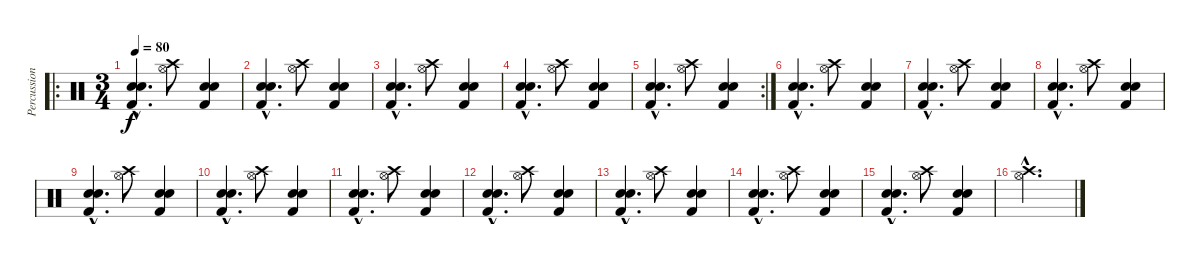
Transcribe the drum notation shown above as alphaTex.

\track ("Percussions" "Percussion") {instrument percussion}
\staff {score}
\articulation defaults
\ro
\ts (3 4)
\tempo 80
\clef neutral
\ks c
("Snare (hit) 2"{hac} "Snare (hit) 2"{hac} "Kick (hit) 2"{hac}).4{d dy f} ("Crash high (hit)" "Hi-Hat (open)").8 ("Snare (hit) 2" "Snare (hit) 2" "Kick (hit) 2").4 |
("Snare (hit) 2"{hac} "Snare (hit) 2"{hac} "Kick (hit) 2"{hac}).4{d} ("Crash high (hit)" "Hi-Hat (open)").8 ("Snare (hit) 2" "Snare (hit) 2" "Kick (hit) 2").4 |
("Snare (hit) 2"{hac} "Snare (hit) 2"{hac} "Kick (hit) 2"{hac}).4{d} ("Crash high (hit)" "Hi-Hat (open)").8 ("Snare (hit) 2" "Snare (hit) 2" "Kick (hit) 2").4 |
("Snare (hit) 2"{hac} "Snare (hit) 2"{hac} "Kick (hit) 2"{hac}).4{d} ("Crash high (hit)" "Hi-Hat (open)").8 ("Snare (hit) 2" "Snare (hit) 2" "Kick (hit) 2").4 |
\rc 2
("Snare (hit) 2"{hac} "Snare (hit) 2"{hac} "Kick (hit) 2"{hac}).4{d} ("Crash high (hit)" "Hi-Hat (open)").8 ("Snare (hit) 2" "Snare (hit) 2" "Kick (hit) 2").4 |
("Snare (hit) 2"{hac} "Snare (hit) 2"{hac} "Kick (hit) 2"{hac}).4{d} ("Crash high (hit)" "Hi-Hat (open)").8 ("Snare (hit) 2" "Snare (hit) 2" "Kick (hit) 2").4 |
("Snare (hit) 2"{hac} "Snare (hit) 2"{hac} "Kick (hit) 2"{hac}).4{d} ("Crash high (hit)" "Hi-Hat (open)").8 ("Snare (hit) 2" "Snare (hit) 2" "Kick (hit) 2").4 |
("Snare (hit) 2"{hac} "Snare (hit) 2"{hac} "Kick (hit) 2"{hac}).4{d} ("Crash high (hit)" "Hi-Hat (open)").8 ("Snare (hit) 2" "Snare (hit) 2" "Kick (hit) 2").4 |
("Snare (hit) 2"{hac} "Snare (hit) 2"{hac} "Kick (hit) 2"{hac}).4{d} ("Crash high (hit)" "Hi-Hat (open)").8 ("Snare (hit) 2" "Snare (hit) 2" "Kick (hit) 2").4 |
("Snare (hit) 2"{hac} "Snare (hit) 2"{hac} "Kick (hit) 2"{hac}).4{d} ("Crash high (hit)" "Hi-Hat (open)").8 ("Snare (hit) 2" "Snare (hit) 2" "Kick (hit) 2").4 |
("Snare (hit) 2"{hac} "Snare (hit) 2"{hac} "Kick (hit) 2"{hac}).4{d} ("Crash high (hit)" "Hi-Hat (open)").8 ("Snare (hit) 2" "Snare (hit) 2" "Kick (hit) 2").4 |
("Snare (hit) 2"{hac} "Snare (hit) 2"{hac} "Kick (hit) 2"{hac}).4{d} ("Crash high (hit)" "Hi-Hat (open)").8 ("Snare (hit) 2" "Snare (hit) 2" "Kick (hit) 2").4 |
("Snare (hit) 2"{hac} "Snare (hit) 2"{hac} "Kick (hit) 2"{hac}).4{d} ("Crash high (hit)" "Hi-Hat (open)").8 ("Snare (hit) 2" "Snare (hit) 2" "Kick (hit) 2").4 |
("Snare (hit) 2"{hac} "Snare (hit) 2"{hac} "Kick (hit) 2"{hac}).4{d} ("Crash high (hit)" "Hi-Hat (open)").8 ("Snare (hit) 2" "Snare (hit) 2" "Kick (hit) 2").4 |
("Snare (hit) 2"{hac} "Snare (hit) 2"{hac} "Kick (hit) 2"{hac}).4{d} ("Crash high (hit)" "Hi-Hat (open)").8 ("Snare (hit) 2" "Snare (hit) 2" "Kick (hit) 2").4 |
("Crash high (hit)"{hac} "Hi-Hat (open)"{hac}).2{d}
